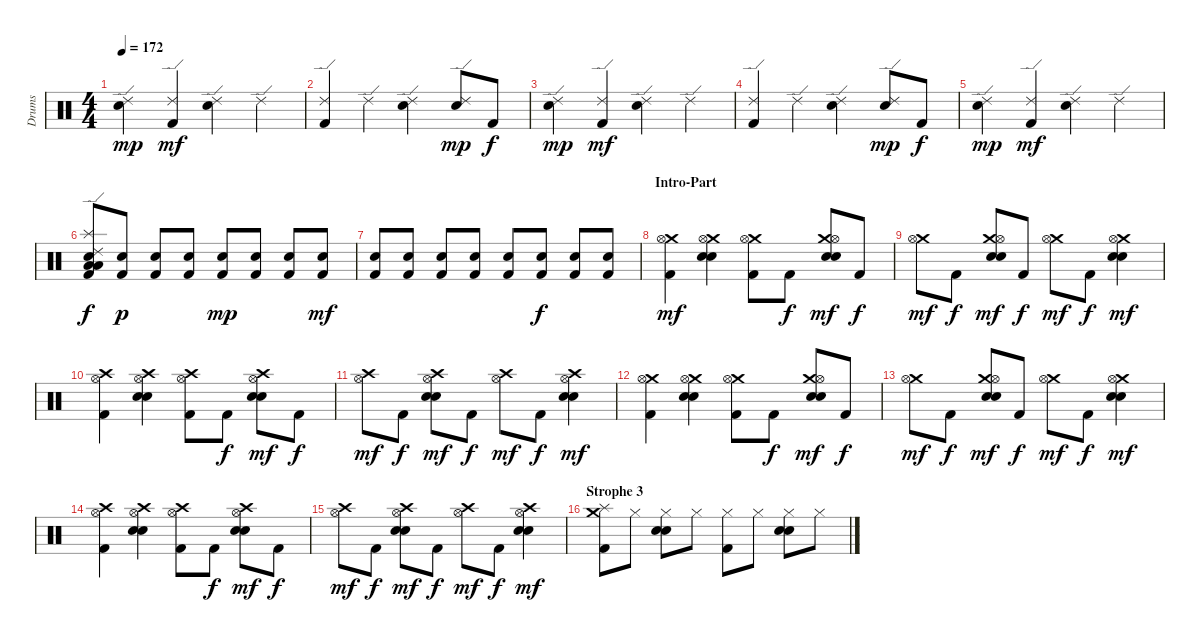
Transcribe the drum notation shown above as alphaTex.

\track ("Drums" "Drums") {instrument percussion}
\staff {score}
\articulation defaults
\ts (4 4)
\tempo 172
\clef neutral
\ks c
("Ride (edge) 2" "Electric Snare (hit)").4{dy mp} ("Ride (edge) 2" "Kick (hit) 2").4{dy mf} ("Ride (edge) 2" "Electric Snare (hit)").4 "Ride (edge) 2".4 |
("Ride (edge) 2" "Kick (hit) 2").4 "Ride (edge) 2".4 ("Ride (edge) 2" "Electric Snare (hit)").4 ("Ride (edge) 2" "Electric Snare (hit)").8{dy mp} "Kick (hit) 2".8{dy f} |
("Ride (edge) 2" "Electric Snare (hit)").4{dy mp} ("Ride (edge) 2" "Kick (hit) 2").4{dy mf} ("Ride (edge) 2" "Electric Snare (hit)").4 "Ride (edge) 2".4 |
("Ride (edge) 2" "Kick (hit) 2").4 "Ride (edge) 2".4 ("Ride (edge) 2" "Electric Snare (hit)").4 ("Ride (edge) 2" "Electric Snare (hit)").8{dy mp} "Kick (hit) 2".8{dy f} |
("Ride (edge) 2" "Electric Snare (hit)").4{dy mp} ("Ride (edge) 2" "Kick (hit) 2").4{dy mf} ("Ride (edge) 2" "Electric Snare (hit)").4 "Ride (edge) 2".4 |
("Splash (hit)" "Ride (edge) 2" "Low Tom (hit)" "Electric Snare (hit)" "Low Floor Tom (hit)" "Kick (hit) 2").8{dy f volume 13} ("Electric Snare (hit)" "Kick (hit) 2").8{dy p} ("Electric Snare (hit)" "Kick (hit) 2").8 ("Electric Snare (hit)" "Kick (hit) 2").8 ("Electric Snare (hit)" "Kick (hit) 2").8{dy mp} ("Electric Snare (hit)" "Kick (hit) 2").8 ("Electric Snare (hit)" "Kick (hit) 2").8 ("Electric Snare (hit)" "Kick (hit) 2").8{dy mf} |
("Electric Snare (hit)" "Kick (hit) 2").8 ("Electric Snare (hit)" "Kick (hit) 2").8 ("Electric Snare (hit)" "Kick (hit) 2").8 ("Electric Snare (hit)" "Kick (hit) 2").8 ("Electric Snare (hit)" "Kick (hit) 2").8 ("Electric Snare (hit)" "Kick (hit) 2").8{dy f} ("Electric Snare (hit)" "Kick (hit) 2").8 ("Electric Snare (hit)" "Kick (hit) 2").8 |
\section ("" "Intro-Part")
("Crash medium (hit)" "Hi-Hat (open)" "Kick (hit) 2").4{dy mf volume 12} ("Crash medium (hit)" "Hi-Hat (open)" "Electric Snare (hit)" "Snare (hit) 2").4 ("Crash medium (hit)" "Hi-Hat (open)" "Kick (hit) 2").8 "Kick (hit) 2".8{dy f} ("Crash medium (hit)" "Hi-Hat (open)" "Electric Snare (hit)" "Snare (hit) 2").8{dy mf} "Kick (hit) 2".8{dy f} |
("Crash medium (hit)" "Hi-Hat (open)").8{dy mf} "Kick (hit) 2".8{dy f} ("Crash medium (hit)" "Hi-Hat (open)" "Electric Snare (hit)" "Snare (hit) 2").8{dy mf} "Kick (hit) 2".8{dy f} ("Crash medium (hit)" "Hi-Hat (open)").8{dy mf} "Kick (hit) 2".8{dy f} ("Crash medium (hit)" "Hi-Hat (open)" "Electric Snare (hit)" "Snare (hit) 2").4{dy mf} |
("Crash high (hit)" "Hi-Hat (open)" "Kick (hit) 2").4 ("Crash high (hit)" "Hi-Hat (open)" "Electric Snare (hit)" "Snare (hit) 2").4 ("Crash high (hit)" "Hi-Hat (open)" "Kick (hit) 2").8 "Kick (hit) 2".8{dy f} ("Crash high (hit)" "Hi-Hat (open)" "Electric Snare (hit)" "Snare (hit) 2").8{dy mf} "Kick (hit) 2".8{dy f} |
("Crash high (hit)" "Hi-Hat (open)").8{dy mf} "Kick (hit) 2".8{dy f} ("Crash high (hit)" "Hi-Hat (open)" "Electric Snare (hit)" "Snare (hit) 2").8{dy mf} "Kick (hit) 2".8{dy f} ("Crash high (hit)" "Hi-Hat (open)").8{dy mf} "Kick (hit) 2".8{dy f} ("Crash high (hit)" "Hi-Hat (open)" "Electric Snare (hit)" "Snare (hit) 2").4{dy mf} |
("Crash medium (hit)" "Hi-Hat (open)" "Kick (hit) 2").4 ("Crash medium (hit)" "Hi-Hat (open)" "Electric Snare (hit)" "Snare (hit) 2").4 ("Crash medium (hit)" "Hi-Hat (open)" "Kick (hit) 2").8 "Kick (hit) 2".8{dy f} ("Crash medium (hit)" "Hi-Hat (open)" "Electric Snare (hit)" "Snare (hit) 2").8{dy mf} "Kick (hit) 2".8{dy f} |
("Crash medium (hit)" "Hi-Hat (open)").8{dy mf} "Kick (hit) 2".8{dy f} ("Crash medium (hit)" "Hi-Hat (open)" "Electric Snare (hit)" "Snare (hit) 2").8{dy mf} "Kick (hit) 2".8{dy f} ("Crash medium (hit)" "Hi-Hat (open)").8{dy mf} "Kick (hit) 2".8{dy f} ("Crash medium (hit)" "Hi-Hat (open)" "Electric Snare (hit)" "Snare (hit) 2").4{dy mf} |
("Crash high (hit)" "Hi-Hat (open)" "Kick (hit) 2").4 ("Crash high (hit)" "Hi-Hat (open)" "Electric Snare (hit)" "Snare (hit) 2").4 ("Crash high (hit)" "Hi-Hat (open)" "Kick (hit) 2").8 "Kick (hit) 2".8{dy f} ("Crash high (hit)" "Hi-Hat (open)" "Electric Snare (hit)" "Snare (hit) 2").8{dy mf} "Kick (hit) 2".8{dy f} |
("Crash high (hit)" "Hi-Hat (open)").8{dy mf} "Kick (hit) 2".8{dy f} ("Crash high (hit)" "Hi-Hat (open)" "Electric Snare (hit)" "Snare (hit) 2").8{dy mf} "Kick (hit) 2".8{dy f} ("Crash high (hit)" "Hi-Hat (open)").8{dy mf} "Kick (hit) 2".8{dy f} ("Crash high (hit)" "Hi-Hat (open)" "Electric Snare (hit)" "Snare (hit) 2").4{dy mf} |
\section ("" "Strophe 3")
("Splash (hit)" "Crash medium (hit)" "Kick (hit) 2").8 "Hi-Hat (closed)".8 ("Hi-Hat (closed)" "Electric Snare (hit)" "Snare (hit) 2").8 "Hi-Hat (closed)".8 ("Hi-Hat (closed)" "Kick (hit) 2").8 "Hi-Hat (closed)".8 ("Hi-Hat (closed)" "Electric Snare (hit)" "Snare (hit) 2").8 "Hi-Hat (closed)".8
